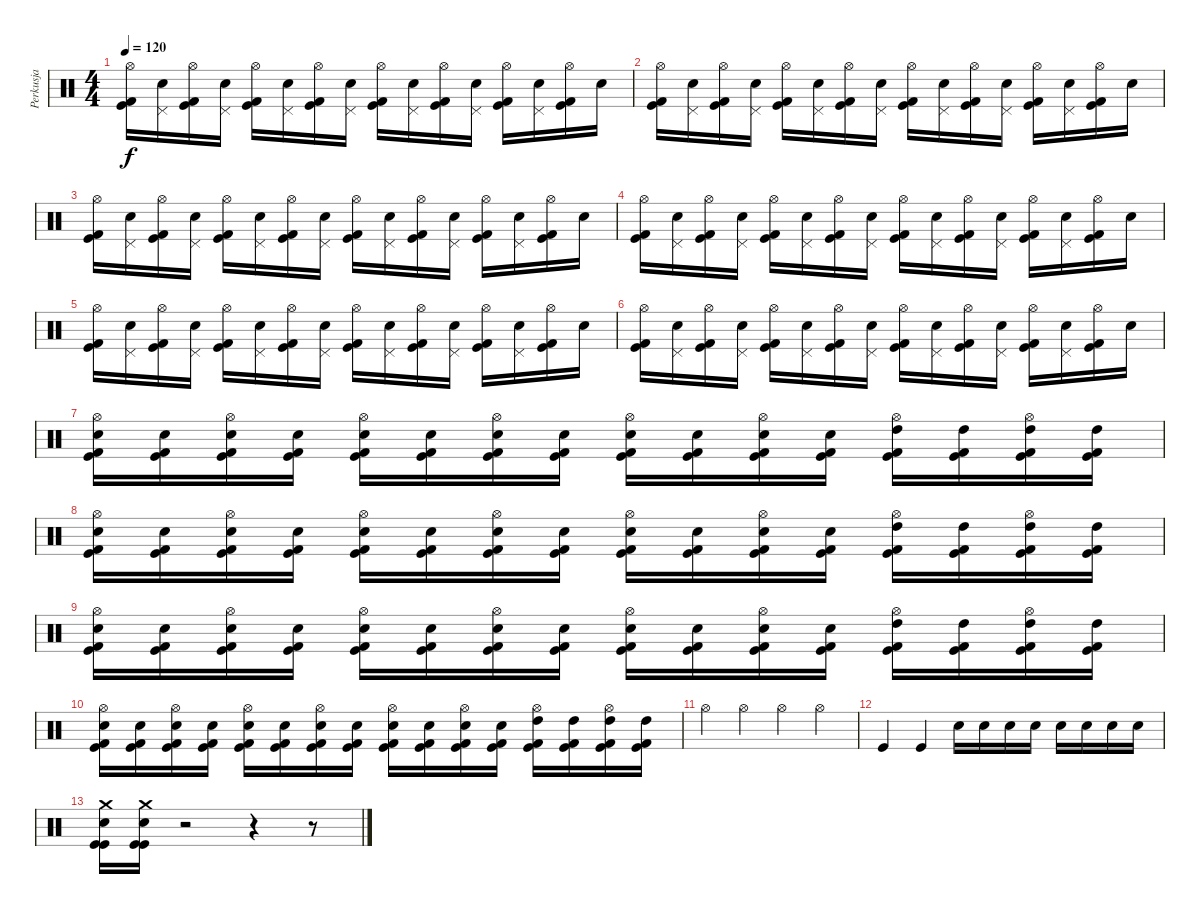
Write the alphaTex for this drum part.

\track ("Perkusja" "Perkusja") {instrument percussion}
\staff {score}
\articulation defaults
\ts (4 4)
\tempo 120
\clef neutral
\ks c
("Hi-Hat (open)" "Kick (hit)" "Kick (hit) 2").16{dy f} ("Pedal Hi-Hat (hit)" "Snare (hit) 2").16 ("Hi-Hat (open)" "Kick (hit)" "Kick (hit) 2").16 ("Pedal Hi-Hat (hit)" "Snare (hit) 2").16 ("Hi-Hat (open)" "Kick (hit)" "Kick (hit) 2").16 ("Pedal Hi-Hat (hit)" "Snare (hit) 2").16 ("Hi-Hat (open)" "Kick (hit)" "Kick (hit) 2").16 ("Pedal Hi-Hat (hit)" "Snare (hit) 2").16 ("Hi-Hat (open)" "Kick (hit)" "Kick (hit) 2").16 ("Pedal Hi-Hat (hit)" "Snare (hit) 2").16 ("Hi-Hat (open)" "Kick (hit)" "Kick (hit) 2").16 ("Pedal Hi-Hat (hit)" "Snare (hit) 2").16 ("Hi-Hat (open)" "Kick (hit)" "Kick (hit) 2").16 ("Pedal Hi-Hat (hit)" "Snare (hit) 2").16 ("Hi-Hat (open)" "Kick (hit)" "Kick (hit) 2").16 "Snare (hit) 2".16 |
("Hi-Hat (open)" "Kick (hit)" "Kick (hit) 2").16 ("Pedal Hi-Hat (hit)" "Snare (hit) 2").16 ("Hi-Hat (open)" "Kick (hit)" "Kick (hit) 2").16 ("Pedal Hi-Hat (hit)" "Snare (hit) 2").16 ("Hi-Hat (open)" "Kick (hit)" "Kick (hit) 2").16 ("Pedal Hi-Hat (hit)" "Snare (hit) 2").16 ("Hi-Hat (open)" "Kick (hit)" "Kick (hit) 2").16 ("Pedal Hi-Hat (hit)" "Snare (hit) 2").16 ("Hi-Hat (open)" "Kick (hit)" "Kick (hit) 2").16 ("Pedal Hi-Hat (hit)" "Snare (hit) 2").16 ("Hi-Hat (open)" "Kick (hit)" "Kick (hit) 2").16 ("Pedal Hi-Hat (hit)" "Snare (hit) 2").16 ("Hi-Hat (open)" "Kick (hit)" "Kick (hit) 2").16 ("Pedal Hi-Hat (hit)" "Snare (hit) 2").16 ("Hi-Hat (open)" "Kick (hit)" "Kick (hit) 2").16 "Snare (hit) 2".16 |
("Hi-Hat (open)" "Kick (hit)" "Kick (hit) 2").16 ("Pedal Hi-Hat (hit)" "Snare (hit) 2").16 ("Hi-Hat (open)" "Kick (hit)" "Kick (hit) 2").16 ("Pedal Hi-Hat (hit)" "Snare (hit) 2").16 ("Hi-Hat (open)" "Kick (hit)" "Kick (hit) 2").16 ("Pedal Hi-Hat (hit)" "Snare (hit) 2").16 ("Hi-Hat (open)" "Kick (hit)" "Kick (hit) 2").16 ("Pedal Hi-Hat (hit)" "Snare (hit) 2").16 ("Hi-Hat (open)" "Kick (hit)" "Kick (hit) 2").16 ("Pedal Hi-Hat (hit)" "Snare (hit) 2").16 ("Hi-Hat (open)" "Kick (hit)" "Kick (hit) 2").16 ("Pedal Hi-Hat (hit)" "Snare (hit) 2").16 ("Hi-Hat (open)" "Kick (hit)" "Kick (hit) 2").16 ("Pedal Hi-Hat (hit)" "Snare (hit) 2").16 ("Hi-Hat (open)" "Kick (hit)" "Kick (hit) 2").16 "Snare (hit) 2".16 |
("Hi-Hat (open)" "Kick (hit)" "Kick (hit) 2").16 ("Pedal Hi-Hat (hit)" "Snare (hit) 2").16 ("Hi-Hat (open)" "Kick (hit)" "Kick (hit) 2").16 ("Pedal Hi-Hat (hit)" "Snare (hit) 2").16 ("Hi-Hat (open)" "Kick (hit)" "Kick (hit) 2").16 ("Pedal Hi-Hat (hit)" "Snare (hit) 2").16 ("Hi-Hat (open)" "Kick (hit)" "Kick (hit) 2").16 ("Pedal Hi-Hat (hit)" "Snare (hit) 2").16 ("Hi-Hat (open)" "Kick (hit)" "Kick (hit) 2").16 ("Pedal Hi-Hat (hit)" "Snare (hit) 2").16 ("Hi-Hat (open)" "Kick (hit)" "Kick (hit) 2").16 ("Pedal Hi-Hat (hit)" "Snare (hit) 2").16 ("Hi-Hat (open)" "Kick (hit)" "Kick (hit) 2").16 ("Pedal Hi-Hat (hit)" "Snare (hit) 2").16 ("Hi-Hat (open)" "Kick (hit)" "Kick (hit) 2").16 "Snare (hit) 2".16 |
("Hi-Hat (open)" "Kick (hit)" "Kick (hit) 2").16 ("Pedal Hi-Hat (hit)" "Snare (hit) 2").16 ("Hi-Hat (open)" "Kick (hit)" "Kick (hit) 2").16 ("Pedal Hi-Hat (hit)" "Snare (hit) 2").16 ("Hi-Hat (open)" "Kick (hit)" "Kick (hit) 2").16 ("Pedal Hi-Hat (hit)" "Snare (hit) 2").16 ("Hi-Hat (open)" "Kick (hit)" "Kick (hit) 2").16 ("Pedal Hi-Hat (hit)" "Snare (hit) 2").16 ("Hi-Hat (open)" "Kick (hit)" "Kick (hit) 2").16 ("Pedal Hi-Hat (hit)" "Snare (hit) 2").16 ("Hi-Hat (open)" "Kick (hit)" "Kick (hit) 2").16 ("Pedal Hi-Hat (hit)" "Snare (hit) 2").16 ("Hi-Hat (open)" "Kick (hit)" "Kick (hit) 2").16 ("Pedal Hi-Hat (hit)" "Snare (hit) 2").16 ("Hi-Hat (open)" "Kick (hit)" "Kick (hit) 2").16 "Snare (hit) 2".16 |
("Hi-Hat (open)" "Kick (hit)" "Kick (hit) 2").16 ("Pedal Hi-Hat (hit)" "Snare (hit) 2").16 ("Hi-Hat (open)" "Kick (hit)" "Kick (hit) 2").16 ("Pedal Hi-Hat (hit)" "Snare (hit) 2").16 ("Hi-Hat (open)" "Kick (hit)" "Kick (hit) 2").16 ("Pedal Hi-Hat (hit)" "Snare (hit) 2").16 ("Hi-Hat (open)" "Kick (hit)" "Kick (hit) 2").16 ("Pedal Hi-Hat (hit)" "Snare (hit) 2").16 ("Hi-Hat (open)" "Kick (hit)" "Kick (hit) 2").16 ("Pedal Hi-Hat (hit)" "Snare (hit) 2").16 ("Hi-Hat (open)" "Kick (hit)" "Kick (hit) 2").16 ("Pedal Hi-Hat (hit)" "Snare (hit) 2").16 ("Hi-Hat (open)" "Kick (hit)" "Kick (hit) 2").16 ("Pedal Hi-Hat (hit)" "Snare (hit) 2").16 ("Hi-Hat (open)" "Kick (hit)" "Kick (hit) 2").16 "Snare (hit) 2".16 |
("Hi-Hat (open)" "Snare (hit) 2" "Kick (hit)" "Kick (hit) 2").16 ("Snare (hit) 2" "Kick (hit)" "Kick (hit) 2").16 ("Hi-Hat (open)" "Snare (hit) 2" "Kick (hit)" "Kick (hit) 2").16 ("Snare (hit) 2" "Kick (hit)" "Kick (hit) 2").16 ("Hi-Hat (open)" "Snare (hit) 2" "Kick (hit)" "Kick (hit) 2").16 ("Snare (hit) 2" "Kick (hit)" "Kick (hit) 2").16 ("Hi-Hat (open)" "Snare (hit) 2" "Kick (hit)" "Kick (hit) 2").16 ("Snare (hit) 2" "Kick (hit)" "Kick (hit) 2").16 ("Hi-Hat (open)" "Electric Snare (hit)" "Kick (hit)" "Kick (hit) 2").16 ("Electric Snare (hit)" "Kick (hit)" "Kick (hit) 2").16 ("Hi-Hat (open)" "Electric Snare (hit)" "Kick (hit)" "Kick (hit) 2").16 ("Electric Snare (hit)" "Kick (hit)" "Kick (hit) 2").16 ("Hi-Hat (open)" "High Tom (hit)" "Kick (hit)" "Kick (hit) 2").16 ("High Tom (hit)" "Kick (hit)" "Kick (hit) 2").16 ("Hi-Hat (open)" "High Tom (hit)" "Kick (hit)" "Kick (hit) 2").16 ("High Tom (hit)" "Kick (hit)" "Kick (hit) 2").16 |
("Hi-Hat (open)" "Snare (hit) 2" "Kick (hit)" "Kick (hit) 2").16 ("Snare (hit) 2" "Kick (hit)" "Kick (hit) 2").16 ("Hi-Hat (open)" "Snare (hit) 2" "Kick (hit)" "Kick (hit) 2").16 ("Snare (hit) 2" "Kick (hit)" "Kick (hit) 2").16 ("Hi-Hat (open)" "Snare (hit) 2" "Kick (hit)" "Kick (hit) 2").16 ("Snare (hit) 2" "Kick (hit)" "Kick (hit) 2").16 ("Hi-Hat (open)" "Snare (hit) 2" "Kick (hit)" "Kick (hit) 2").16 ("Snare (hit) 2" "Kick (hit)" "Kick (hit) 2").16 ("Hi-Hat (open)" "Electric Snare (hit)" "Kick (hit)" "Kick (hit) 2").16 ("Electric Snare (hit)" "Kick (hit)" "Kick (hit) 2").16 ("Hi-Hat (open)" "Electric Snare (hit)" "Kick (hit)" "Kick (hit) 2").16 ("Electric Snare (hit)" "Kick (hit)" "Kick (hit) 2").16 ("Hi-Hat (open)" "High Tom (hit)" "Kick (hit)" "Kick (hit) 2").16 ("High Tom (hit)" "Kick (hit)" "Kick (hit) 2").16 ("Hi-Hat (open)" "High Tom (hit)" "Kick (hit)" "Kick (hit) 2").16 ("High Tom (hit)" "Kick (hit)" "Kick (hit) 2").16 |
("Hi-Hat (open)" "Snare (hit) 2" "Kick (hit)" "Kick (hit) 2").16 ("Snare (hit) 2" "Kick (hit)" "Kick (hit) 2").16 ("Hi-Hat (open)" "Snare (hit) 2" "Kick (hit)" "Kick (hit) 2").16 ("Snare (hit) 2" "Kick (hit)" "Kick (hit) 2").16 ("Hi-Hat (open)" "Snare (hit) 2" "Kick (hit)" "Kick (hit) 2").16 ("Snare (hit) 2" "Kick (hit)" "Kick (hit) 2").16 ("Hi-Hat (open)" "Snare (hit) 2" "Kick (hit)" "Kick (hit) 2").16 ("Snare (hit) 2" "Kick (hit)" "Kick (hit) 2").16 ("Hi-Hat (open)" "Electric Snare (hit)" "Kick (hit)" "Kick (hit) 2").16 ("Electric Snare (hit)" "Kick (hit)" "Kick (hit) 2").16 ("Hi-Hat (open)" "Electric Snare (hit)" "Kick (hit)" "Kick (hit) 2").16 ("Electric Snare (hit)" "Kick (hit)" "Kick (hit) 2").16 ("Hi-Hat (open)" "High Tom (hit)" "Kick (hit)" "Kick (hit) 2").16 ("High Tom (hit)" "Kick (hit)" "Kick (hit) 2").16 ("Hi-Hat (open)" "High Tom (hit)" "Kick (hit)" "Kick (hit) 2").16 ("High Tom (hit)" "Kick (hit)" "Kick (hit) 2").16 |
("Hi-Hat (open)" "Snare (hit) 2" "Kick (hit)" "Kick (hit) 2").16 ("Snare (hit) 2" "Kick (hit)" "Kick (hit) 2").16 ("Hi-Hat (open)" "Snare (hit) 2" "Kick (hit)" "Kick (hit) 2").16 ("Snare (hit) 2" "Kick (hit)" "Kick (hit) 2").16 ("Hi-Hat (open)" "Snare (hit) 2" "Kick (hit)" "Kick (hit) 2").16 ("Snare (hit) 2" "Kick (hit)" "Kick (hit) 2").16 ("Hi-Hat (open)" "Snare (hit) 2" "Kick (hit)" "Kick (hit) 2").16 ("Snare (hit) 2" "Kick (hit)" "Kick (hit) 2").16 ("Hi-Hat (open)" "Electric Snare (hit)" "Kick (hit)" "Kick (hit) 2").16 ("Electric Snare (hit)" "Kick (hit)" "Kick (hit) 2").16 ("Hi-Hat (open)" "Electric Snare (hit)" "Kick (hit)" "Kick (hit) 2").16 ("Electric Snare (hit)" "Kick (hit)" "Kick (hit) 2").16 ("Hi-Hat (open)" "High Tom (hit)" "Kick (hit)" "Kick (hit) 2").16 ("High Tom (hit)" "Kick (hit)" "Kick (hit) 2").16 ("Hi-Hat (open)" "High Tom (hit)" "Kick (hit)" "Kick (hit) 2").16 ("High Tom (hit)" "Kick (hit)" "Kick (hit) 2").16 |
"Hi-Hat (open)".4 "Hi-Hat (open)".4 "Hi-Hat (open)".4 "Hi-Hat (open)".4 |
"Kick (hit)".4 "Kick (hit)".4 "Snare (hit) 2".16 "Snare (hit) 2".16 "Snare (hit) 2".16 "Snare (hit) 2".16 "Snare (hit) 2".16 "Snare (hit) 2".16 "Snare (hit) 2".16 "Snare (hit) 2".16 |
("Snare (hit) 2" "Crash medium (hit)" "Kick (hit)" "Kick (hit)").16 ("Snare (hit) 2" "Crash medium (hit)" "Kick (hit)" "Kick (hit)").16 r.2 r.4 r.8
